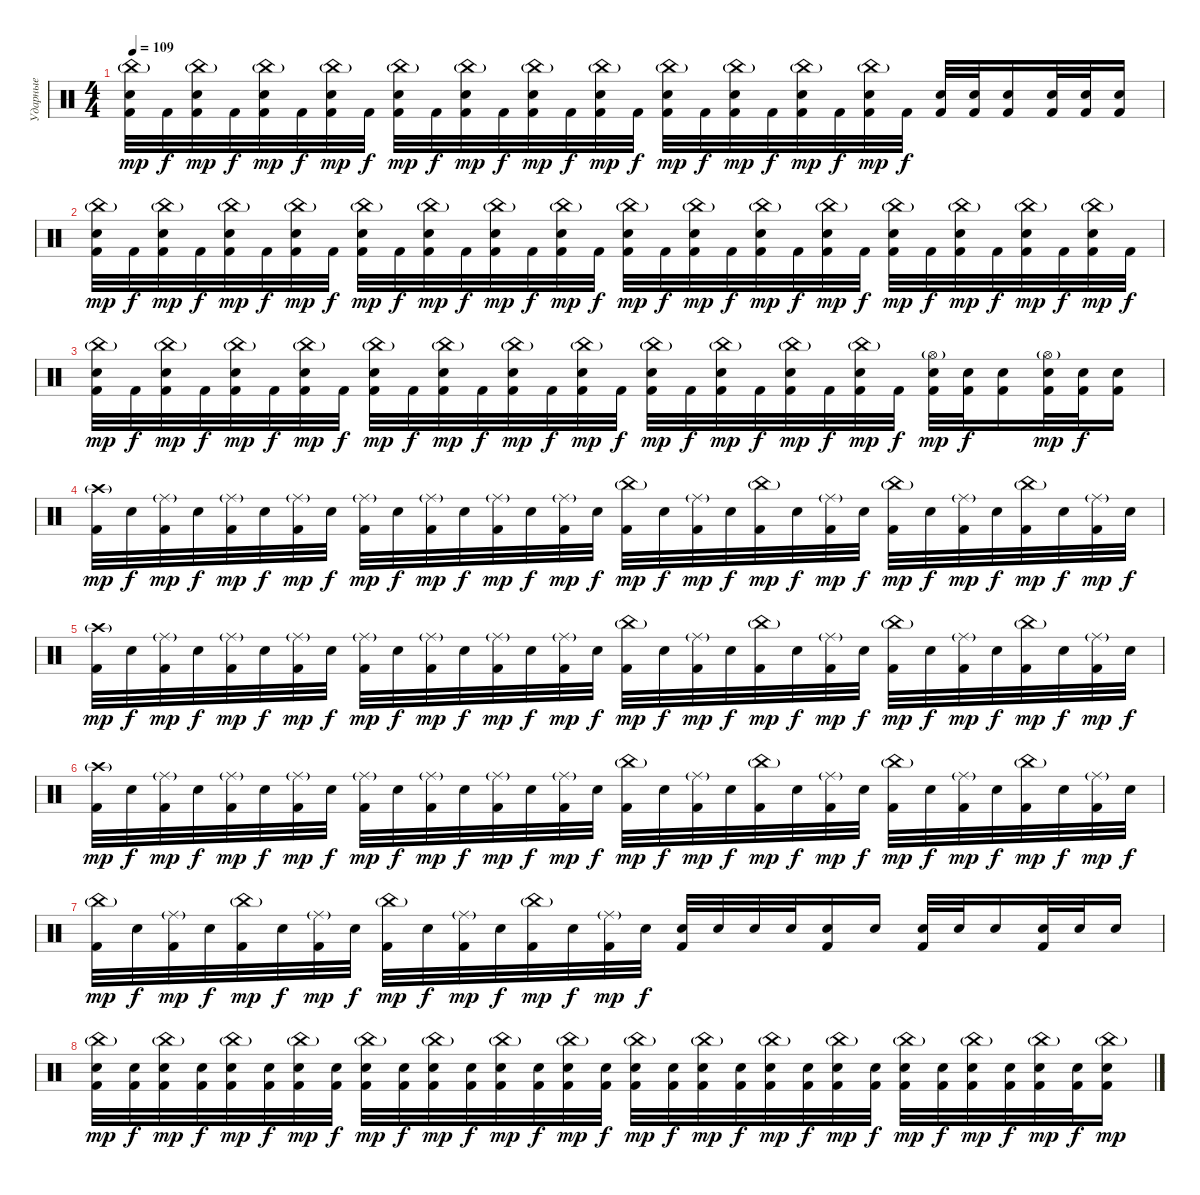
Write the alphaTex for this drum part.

\track ("Ударные" "Ударные") {instrument percussion}
\staff {score}
\articulation defaults
\ts (4 4)
\tempo 109
\clef neutral
\ks c
("China (hit)"{g} "Electric Snare (hit)" "Kick (hit) 2").32{dy mp} "Kick (hit) 2".32{dy f} ("China (hit)"{g} "Electric Snare (hit)" "Kick (hit) 2").32{dy mp} "Kick (hit) 2".32{dy f} ("China (hit)"{g} "Electric Snare (hit)" "Kick (hit) 2").32{dy mp} "Kick (hit) 2".32{dy f} ("China (hit)"{g} "Electric Snare (hit)" "Kick (hit) 2").32{dy mp} "Kick (hit) 2".32{dy f} ("China (hit)"{g} "Electric Snare (hit)" "Kick (hit) 2").32{dy mp} "Kick (hit) 2".32{dy f} ("China (hit)"{g} "Electric Snare (hit)" "Kick (hit) 2").32{dy mp} "Kick (hit) 2".32{dy f} ("China (hit)"{g} "Electric Snare (hit)" "Kick (hit) 2").32{dy mp} "Kick (hit) 2".32{dy f} ("China (hit)"{g} "Electric Snare (hit)" "Kick (hit) 2").32{dy mp} "Kick (hit) 2".32{dy f} ("China (hit)"{g} "Electric Snare (hit)" "Kick (hit) 2").32{dy mp} "Kick (hit) 2".32{dy f} ("China (hit)"{g} "Electric Snare (hit)" "Kick (hit) 2").32{dy mp} "Kick (hit) 2".32{dy f} ("China (hit)"{g} "Electric Snare (hit)" "Kick (hit) 2").32{dy mp} "Kick (hit) 2".32{dy f} ("China (hit)"{g} "Electric Snare (hit)" "Kick (hit) 2").32{dy mp} "Kick (hit) 2".32{dy f} ("Electric Snare (hit)" "Kick (hit) 2").32 ("Electric Snare (hit)" "Kick (hit) 2").32 ("Electric Snare (hit)" "Kick (hit) 2").16 ("Electric Snare (hit)" "Kick (hit) 2").32 ("Electric Snare (hit)" "Kick (hit) 2").32 ("Electric Snare (hit)" "Kick (hit) 2").16 |
("China (hit)"{g} "Electric Snare (hit)" "Kick (hit) 2").32{dy mp} "Kick (hit) 2".32{dy f} ("China (hit)"{g} "Electric Snare (hit)" "Kick (hit) 2").32{dy mp} "Kick (hit) 2".32{dy f} ("China (hit)"{g} "Electric Snare (hit)" "Kick (hit) 2").32{dy mp} "Kick (hit) 2".32{dy f} ("China (hit)"{g} "Electric Snare (hit)" "Kick (hit) 2").32{dy mp} "Kick (hit) 2".32{dy f} ("China (hit)"{g} "Electric Snare (hit)" "Kick (hit) 2").32{dy mp} "Kick (hit) 2".32{dy f} ("China (hit)"{g} "Electric Snare (hit)" "Kick (hit) 2").32{dy mp} "Kick (hit) 2".32{dy f} ("China (hit)"{g} "Electric Snare (hit)" "Kick (hit) 2").32{dy mp} "Kick (hit) 2".32{dy f} ("China (hit)"{g} "Electric Snare (hit)" "Kick (hit) 2").32{dy mp} "Kick (hit) 2".32{dy f} ("China (hit)"{g} "Electric Snare (hit)" "Kick (hit) 2").32{dy mp} "Kick (hit) 2".32{dy f} ("China (hit)"{g} "Electric Snare (hit)" "Kick (hit) 2").32{dy mp} "Kick (hit) 2".32{dy f} ("China (hit)"{g} "Electric Snare (hit)" "Kick (hit) 2").32{dy mp} "Kick (hit) 2".32{dy f} ("China (hit)"{g} "Electric Snare (hit)" "Kick (hit) 2").32{dy mp} "Kick (hit) 2".32{dy f} ("China (hit)"{g} "Electric Snare (hit)" "Kick (hit) 2").32{dy mp} "Kick (hit) 2".32{dy f} ("China (hit)"{g} "Electric Snare (hit)" "Kick (hit) 2").32{dy mp} "Kick (hit) 2".32{dy f} ("China (hit)"{g} "Electric Snare (hit)" "Kick (hit) 2").32{dy mp} "Kick (hit) 2".32{dy f} ("China (hit)"{g} "Electric Snare (hit)" "Kick (hit) 2").32{dy mp} "Kick (hit) 2".32{dy f} |
("China (hit)"{g} "Electric Snare (hit)" "Kick (hit) 2").32{dy mp} "Kick (hit) 2".32{dy f} ("China (hit)"{g} "Electric Snare (hit)" "Kick (hit) 2").32{dy mp} "Kick (hit) 2".32{dy f} ("China (hit)"{g} "Electric Snare (hit)" "Kick (hit) 2").32{dy mp} "Kick (hit) 2".32{dy f} ("China (hit)"{g} "Electric Snare (hit)" "Kick (hit) 2").32{dy mp} "Kick (hit) 2".32{dy f} ("China (hit)"{g} "Electric Snare (hit)" "Kick (hit) 2").32{dy mp} "Kick (hit) 2".32{dy f} ("China (hit)"{g} "Electric Snare (hit)" "Kick (hit) 2").32{dy mp} "Kick (hit) 2".32{dy f} ("China (hit)"{g} "Electric Snare (hit)" "Kick (hit) 2").32{dy mp} "Kick (hit) 2".32{dy f} ("China (hit)"{g} "Electric Snare (hit)" "Kick (hit) 2").32{dy mp} "Kick (hit) 2".32{dy f} ("China (hit)"{g} "Electric Snare (hit)" "Kick (hit) 2").32{dy mp} "Kick (hit) 2".32{dy f} ("China (hit)"{g} "Electric Snare (hit)" "Kick (hit) 2").32{dy mp} "Kick (hit) 2".32{dy f} ("China (hit)"{g} "Electric Snare (hit)" "Kick (hit) 2").32{dy mp} "Kick (hit) 2".32{dy f} ("China (hit)"{g} "Electric Snare (hit)" "Kick (hit) 2").32{dy mp} "Kick (hit) 2".32{dy f} ("Hi-Hat (open)"{g} "Electric Snare (hit)" "Kick (hit) 2").32{dy mp} ("Electric Snare (hit)" "Kick (hit) 2").32{dy f} ("Electric Snare (hit)" "Kick (hit) 2").16 ("Hi-Hat (open)"{g} "Electric Snare (hit)" "Kick (hit) 2").32{dy mp} ("Electric Snare (hit)" "Kick (hit) 2").32{dy f} ("Electric Snare (hit)" "Kick (hit) 2").16 |
("Crash high (hit)"{g} "Kick (hit) 2").32{dy mp} "Electric Snare (hit)".32{dy f} ("Ride (middle)"{g} "Kick (hit) 2").32{dy mp} "Electric Snare (hit)".32{dy f} ("Ride (middle)"{g} "Kick (hit) 2").32{dy mp} "Electric Snare (hit)".32{dy f} ("Ride (middle)"{g} "Kick (hit) 2").32{dy mp} "Electric Snare (hit)".32{dy f} ("Ride (middle)"{g} "Kick (hit) 2").32{dy mp} "Electric Snare (hit)".32{dy f} ("Ride (middle)"{g} "Kick (hit) 2").32{dy mp} "Electric Snare (hit)".32{dy f} ("Ride (middle)"{g} "Kick (hit) 2").32{dy mp} "Electric Snare (hit)".32{dy f} ("Ride (middle)"{g} "Kick (hit) 2").32{dy mp} "Electric Snare (hit)".32{dy f} ("China (hit)"{g} "Kick (hit) 2").32{dy mp} "Electric Snare (hit)".32{dy f} ("Ride (middle)"{g} "Kick (hit) 2").32{dy mp} "Electric Snare (hit)".32{dy f} ("China (hit)"{g} "Kick (hit) 2").32{dy mp} "Electric Snare (hit)".32{dy f} ("Ride (middle)"{g} "Kick (hit) 2").32{dy mp} "Electric Snare (hit)".32{dy f} ("China (hit)"{g} "Kick (hit) 2").32{dy mp} "Electric Snare (hit)".32{dy f} ("Ride (middle)"{g} "Kick (hit) 2").32{dy mp} "Electric Snare (hit)".32{dy f} ("China (hit)"{g} "Kick (hit) 2").32{dy mp} "Electric Snare (hit)".32{dy f} ("Ride (middle)"{g} "Kick (hit) 2").32{dy mp} "Electric Snare (hit)".32{dy f} |
("Crash high (hit)"{g} "Kick (hit) 2").32{dy mp} "Electric Snare (hit)".32{dy f} ("Ride (middle)"{g} "Kick (hit) 2").32{dy mp} "Electric Snare (hit)".32{dy f} ("Ride (middle)"{g} "Kick (hit) 2").32{dy mp} "Electric Snare (hit)".32{dy f} ("Ride (middle)"{g} "Kick (hit) 2").32{dy mp} "Electric Snare (hit)".32{dy f} ("Ride (middle)"{g} "Kick (hit) 2").32{dy mp} "Electric Snare (hit)".32{dy f} ("Ride (middle)"{g} "Kick (hit) 2").32{dy mp} "Electric Snare (hit)".32{dy f} ("Ride (middle)"{g} "Kick (hit) 2").32{dy mp} "Electric Snare (hit)".32{dy f} ("Ride (middle)"{g} "Kick (hit) 2").32{dy mp} "Electric Snare (hit)".32{dy f} ("China (hit)"{g} "Kick (hit) 2").32{dy mp} "Electric Snare (hit)".32{dy f} ("Ride (middle)"{g} "Kick (hit) 2").32{dy mp} "Electric Snare (hit)".32{dy f} ("China (hit)"{g} "Kick (hit) 2").32{dy mp} "Electric Snare (hit)".32{dy f} ("Ride (middle)"{g} "Kick (hit) 2").32{dy mp} "Electric Snare (hit)".32{dy f} ("China (hit)"{g} "Kick (hit) 2").32{dy mp} "Electric Snare (hit)".32{dy f} ("Ride (middle)"{g} "Kick (hit) 2").32{dy mp} "Electric Snare (hit)".32{dy f} ("China (hit)"{g} "Kick (hit) 2").32{dy mp} "Electric Snare (hit)".32{dy f} ("Ride (middle)"{g} "Kick (hit) 2").32{dy mp} "Electric Snare (hit)".32{dy f} |
("Crash high (hit)"{g} "Kick (hit) 2").32{dy mp} "Electric Snare (hit)".32{dy f} ("Ride (middle)"{g} "Kick (hit) 2").32{dy mp} "Electric Snare (hit)".32{dy f} ("Ride (middle)"{g} "Kick (hit) 2").32{dy mp} "Electric Snare (hit)".32{dy f} ("Ride (middle)"{g} "Kick (hit) 2").32{dy mp} "Electric Snare (hit)".32{dy f} ("Ride (middle)"{g} "Kick (hit) 2").32{dy mp} "Electric Snare (hit)".32{dy f} ("Ride (middle)"{g} "Kick (hit) 2").32{dy mp} "Electric Snare (hit)".32{dy f} ("Ride (middle)"{g} "Kick (hit) 2").32{dy mp} "Electric Snare (hit)".32{dy f} ("Ride (middle)"{g} "Kick (hit) 2").32{dy mp} "Electric Snare (hit)".32{dy f} ("China (hit)"{g} "Kick (hit) 2").32{dy mp} "Electric Snare (hit)".32{dy f} ("Ride (middle)"{g} "Kick (hit) 2").32{dy mp} "Electric Snare (hit)".32{dy f} ("China (hit)"{g} "Kick (hit) 2").32{dy mp} "Electric Snare (hit)".32{dy f} ("Ride (middle)"{g} "Kick (hit) 2").32{dy mp} "Electric Snare (hit)".32{dy f} ("China (hit)"{g} "Kick (hit) 2").32{dy mp} "Electric Snare (hit)".32{dy f} ("Ride (middle)"{g} "Kick (hit) 2").32{dy mp} "Electric Snare (hit)".32{dy f} ("China (hit)"{g} "Kick (hit) 2").32{dy mp} "Electric Snare (hit)".32{dy f} ("Ride (middle)"{g} "Kick (hit) 2").32{dy mp} "Electric Snare (hit)".32{dy f} |
("China (hit)"{g} "Kick (hit) 2").32{dy mp} "Electric Snare (hit)".32{dy f} ("Ride (middle)"{g} "Kick (hit) 2").32{dy mp} "Electric Snare (hit)".32{dy f} ("China (hit)"{g} "Kick (hit) 2").32{dy mp} "Electric Snare (hit)".32{dy f} ("Ride (middle)"{g} "Kick (hit) 2").32{dy mp} "Electric Snare (hit)".32{dy f} ("China (hit)"{g} "Kick (hit) 2").32{dy mp} "Electric Snare (hit)".32{dy f} ("Ride (middle)"{g} "Kick (hit) 2").32{dy mp} "Electric Snare (hit)".32{dy f} ("China (hit)"{g} "Kick (hit) 2").32{dy mp} "Electric Snare (hit)".32{dy f} ("Ride (middle)"{g} "Kick (hit) 2").32{dy mp} "Electric Snare (hit)".32{dy f} ("Electric Snare (hit)" "Kick (hit) 2").32 "Electric Snare (hit)".32 "Electric Snare (hit)".32 "Electric Snare (hit)".32 ("Electric Snare (hit)" "Kick (hit) 2").16 "Electric Snare (hit)".16 ("Electric Snare (hit)" "Kick (hit) 2").32 "Electric Snare (hit)".32 "Electric Snare (hit)".16 ("Electric Snare (hit)" "Kick (hit) 2").32 "Electric Snare (hit)".32 "Electric Snare (hit)".16 |
("China (hit)"{g} "Electric Snare (hit)" "Kick (hit) 2").32{dy mp} ("Electric Snare (hit)" "Kick (hit) 2").32{dy f} ("China (hit)"{g} "Electric Snare (hit)" "Kick (hit) 2").32{dy mp} ("Electric Snare (hit)" "Kick (hit) 2").32{dy f} ("China (hit)"{g} "Electric Snare (hit)" "Kick (hit) 2").32{dy mp} ("Electric Snare (hit)" "Kick (hit) 2").32{dy f} ("China (hit)"{g} "Electric Snare (hit)" "Kick (hit) 2").32{dy mp} ("Electric Snare (hit)" "Kick (hit) 2").32{dy f} ("China (hit)"{g} "Electric Snare (hit)" "Kick (hit) 2").32{dy mp} ("Electric Snare (hit)" "Kick (hit) 2").32{dy f} ("China (hit)"{g} "Electric Snare (hit)" "Kick (hit) 2").32{dy mp} ("Electric Snare (hit)" "Kick (hit) 2").32{dy f} ("China (hit)"{g} "Electric Snare (hit)" "Kick (hit) 2").32{dy mp} ("Electric Snare (hit)" "Kick (hit) 2").32{dy f} ("China (hit)"{g} "Electric Snare (hit)" "Kick (hit) 2").32{dy mp} ("Electric Snare (hit)" "Kick (hit) 2").32{dy f} ("China (hit)"{g} "Electric Snare (hit)" "Kick (hit) 2").32{dy mp} ("Electric Snare (hit)" "Kick (hit) 2").32{dy f} ("China (hit)"{g} "Electric Snare (hit)" "Kick (hit) 2").32{dy mp} ("Electric Snare (hit)" "Kick (hit) 2").32{dy f} ("China (hit)"{g} "Electric Snare (hit)" "Kick (hit) 2").32{dy mp} ("Electric Snare (hit)" "Kick (hit) 2").32{dy f} ("China (hit)"{g} "Electric Snare (hit)" "Kick (hit) 2").32{dy mp} ("Electric Snare (hit)" "Kick (hit) 2").32{dy f} ("China (hit)"{g} "Electric Snare (hit)" "Kick (hit) 2").32{dy mp} ("Electric Snare (hit)" "Kick (hit) 2").32{dy f} ("China (hit)"{g} "Electric Snare (hit)" "Kick (hit) 2").32{dy mp} ("Electric Snare (hit)" "Kick (hit) 2").32{dy f} ("China (hit)"{g} "Electric Snare (hit)" "Kick (hit) 2").32{dy mp} ("Electric Snare (hit)" "Kick (hit) 2").32{dy f} ("China (hit)"{g} "Electric Snare (hit)" "Kick (hit) 2").16{dy mp}
